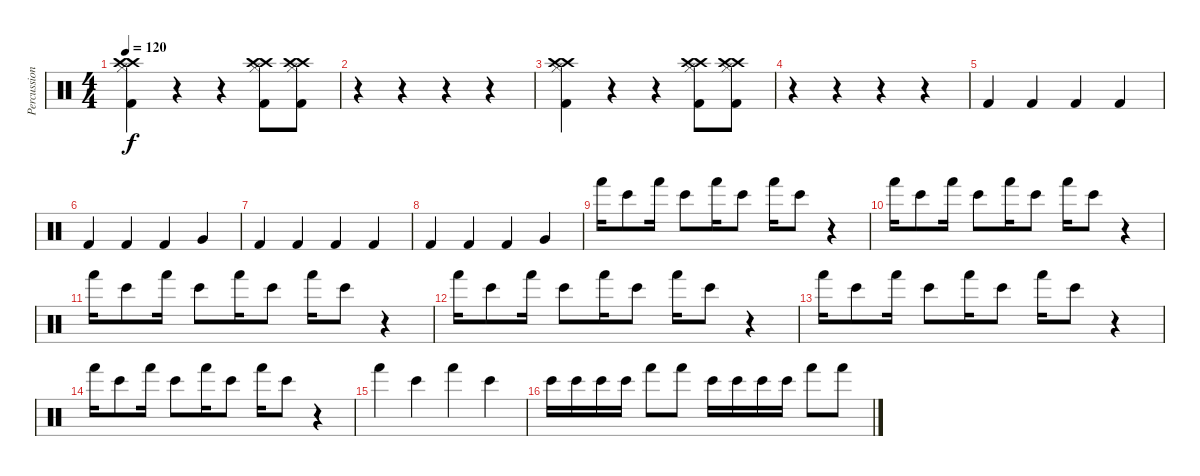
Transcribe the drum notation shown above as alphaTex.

\track ("Percussion" "Percussion") {instrument percussion}
\staff {score}
\articulation defaults
\ts (4 4)
\tempo 120
\clef neutral
\ks c
("Crash high (hit)" "Hi-Hat (closed)" "Kick (hit) 2" "Crash high (hit)").4{dy f} r.4 r.4 ("Crash high (hit)" "Hi-Hat (closed)" "Kick (hit) 2" "Crash high (hit)").8 ("Crash high (hit)" "Hi-Hat (closed)" "Kick (hit) 2" "Crash high (hit)").8 |
r.4 r.4 r.4 r.4 |
("Crash high (hit)" "Hi-Hat (closed)" "Kick (hit) 2" "Crash high (hit)").4 r.4 r.4 ("Crash high (hit)" "Hi-Hat (closed)" "Kick (hit) 2" "Crash high (hit)").8 ("Crash high (hit)" "Hi-Hat (closed)" "Kick (hit) 2" "Crash high (hit)").8 |
r.4 r.4 r.4 r.4 |
"Kick (hit) 2".4 "Kick (hit) 2".4 "Kick (hit) 2".4 "Kick (hit) 2".4 |
"Kick (hit) 2".4 "Kick (hit) 2".4 "Kick (hit) 2".4 "Very Low Tom (hit)".4 |
"Kick (hit) 2".4 "Kick (hit) 2".4 "Kick (hit) 2".4 "Kick (hit) 2".4 |
"Kick (hit) 2".4 "Kick (hit) 2".4 "Kick (hit) 2".4 "Very Low Tom (hit)".4 |
"Hand (hit)".16 "Bongo High (hit)".8 "Hand (hit)".16 "Bongo High (hit)".8 "Hand (hit)".16 "Bongo High (hit)".8 "Hand (hit)".16 "Bongo High (hit)".8 r.4 |
"Hand (hit)".16 "Bongo High (hit)".8 "Hand (hit)".16 "Bongo High (hit)".8 "Hand (hit)".16 "Bongo High (hit)".8 "Hand (hit)".16 "Bongo High (hit)".8 r.4 |
"Hand (hit)".16 "Bongo High (hit)".8 "Hand (hit)".16 "Bongo High (hit)".8 "Hand (hit)".16 "Bongo High (hit)".8 "Hand (hit)".16 "Bongo High (hit)".8 r.4 |
"Hand (hit)".16 "Bongo High (hit)".8 "Hand (hit)".16 "Bongo High (hit)".8 "Hand (hit)".16 "Bongo High (hit)".8 "Hand (hit)".16 "Bongo High (hit)".8 r.4 |
"Hand (hit)".16 "Bongo High (hit)".8 "Hand (hit)".16 "Bongo High (hit)".8 "Hand (hit)".16 "Bongo High (hit)".8 "Hand (hit)".16 "Bongo High (hit)".8 r.4 |
"Hand (hit)".16 "Bongo High (hit)".8 "Hand (hit)".16 "Bongo High (hit)".8 "Hand (hit)".16 "Bongo High (hit)".8 "Hand (hit)".16 "Bongo High (hit)".8 r.4 |
"Hand (hit)".4 "Bongo High (hit)".4 "Hand (hit)".4 "Bongo High (hit)".4 |
"Bongo High (hit)".16 "Bongo High (hit)".16 "Bongo High (hit)".16 "Bongo High (hit)".16 "Hand (hit)".8 "Hand (hit)".8 "Bongo High (hit)".16 "Bongo High (hit)".16 "Bongo High (hit)".16 "Bongo High (hit)".16 "Hand (hit)".8 "Hand (hit)".8
